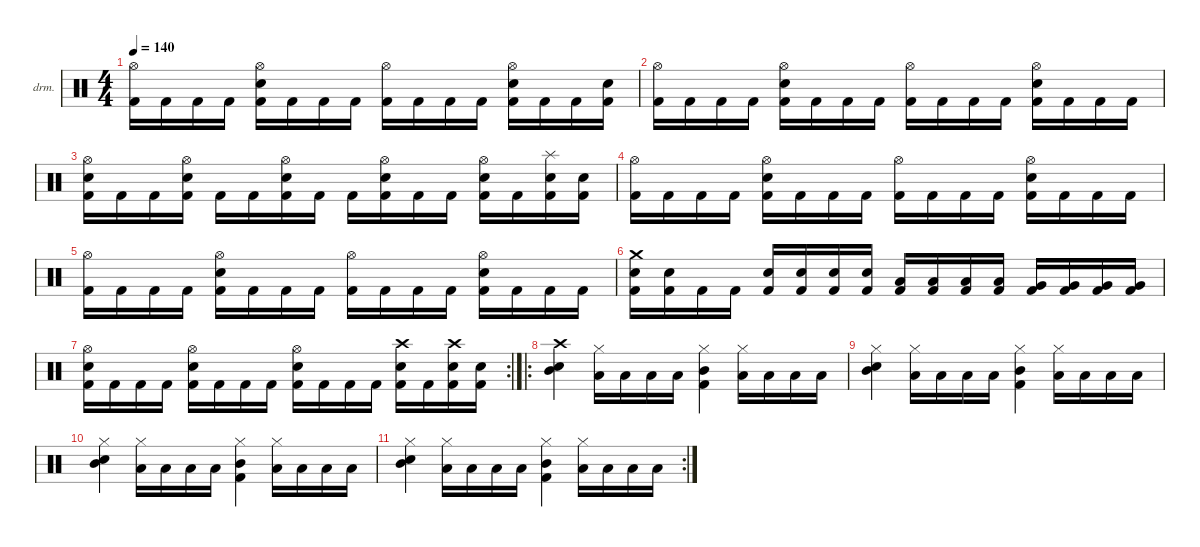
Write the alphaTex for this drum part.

\defaultSystemsLayout 4
\hideDynamics
\bracketExtendMode nobrackets
\firstSystemTrackNameOrientation horizontal
\otherSystemsTrackNameOrientation horizontal
\track ("Drumkit" "drm.") {instrument percussion}
\staff {score}
\articulation defaults
\ts (4 4)
\tempo 140
\clef neutral
\ks c
("Hi-Hat (open)" "Kick (hit) 2").16{dy ff} "Kick (hit) 2".16 "Kick (hit) 2".16 "Kick (hit) 2".16 ("Hi-Hat (open)" "Snare (hit) 2" "Kick (hit) 2").16 "Kick (hit) 2".16 "Kick (hit) 2".16 "Kick (hit) 2".16 ("Hi-Hat (open)" "Kick (hit) 2").16 "Kick (hit) 2".16 "Kick (hit) 2".16 "Kick (hit) 2".16 ("Hi-Hat (open)" "Snare (hit) 2" "Kick (hit) 2").16 "Kick (hit) 2".16 "Kick (hit) 2".16 ("Snare (hit) 2" "Kick (hit) 2").16 |
("Hi-Hat (open)" "Kick (hit) 2").16 "Kick (hit) 2".16 "Kick (hit) 2".16 "Kick (hit) 2".16 ("Hi-Hat (open)" "Snare (hit) 2" "Kick (hit) 2").16 "Kick (hit) 2".16 "Kick (hit) 2".16 "Kick (hit) 2".16 ("Hi-Hat (open)" "Kick (hit) 2").16 "Kick (hit) 2".16 "Kick (hit) 2".16 "Kick (hit) 2".16 ("Hi-Hat (open)" "Snare (hit) 2" "Kick (hit) 2").16 "Kick (hit) 2".16 "Kick (hit) 2".16 "Kick (hit) 2".16 |
("Hi-Hat (open)" "Snare (hit) 2" "Kick (hit) 2").16 "Kick (hit) 2".16 "Kick (hit) 2".16 ("Hi-Hat (open)" "Snare (hit) 2" "Kick (hit) 2").16 "Kick (hit) 2".16 "Kick (hit) 2".16 ("Hi-Hat (open)" "Snare (hit) 2" "Kick (hit) 2").16 "Kick (hit) 2".16 "Kick (hit) 2".16 ("Hi-Hat (open)" "Snare (hit) 2" "Kick (hit) 2").16 "Kick (hit) 2".16 "Kick (hit) 2".16 ("Hi-Hat (open)" "Snare (hit) 2" "Kick (hit) 2").16 "Kick (hit) 2".16 ("Splash (hit)" "Snare (hit) 2" "Kick (hit) 2").16 ("Snare (hit) 2" "Kick (hit) 2").16 |
("Hi-Hat (open)" "Kick (hit) 2").16 "Kick (hit) 2".16 "Kick (hit) 2".16 "Kick (hit) 2".16 ("Hi-Hat (open)" "Snare (hit) 2" "Kick (hit) 2").16 "Kick (hit) 2".16 "Kick (hit) 2".16 "Kick (hit) 2".16 ("Hi-Hat (open)" "Kick (hit) 2").16 "Kick (hit) 2".16 "Kick (hit) 2".16 "Kick (hit) 2".16 ("Hi-Hat (open)" "Snare (hit) 2" "Kick (hit) 2").16 "Kick (hit) 2".16 "Kick (hit) 2".16 "Kick (hit) 2".16 |
("Hi-Hat (open)" "Kick (hit) 2").16 "Kick (hit) 2".16 "Kick (hit) 2".16 "Kick (hit) 2".16 ("Hi-Hat (open)" "Snare (hit) 2" "Kick (hit) 2").16 "Kick (hit) 2".16 "Kick (hit) 2".16 "Kick (hit) 2".16 ("Hi-Hat (open)" "Kick (hit) 2").16 "Kick (hit) 2".16 "Kick (hit) 2".16 "Kick (hit) 2".16 ("Hi-Hat (open)" "Snare (hit) 2" "Kick (hit) 2").16 "Kick (hit) 2".16 "Kick (hit) 2".16 "Kick (hit) 2".16 |
("Crash medium (hit)" "Snare (hit) 2" "Kick (hit) 2").16{dy mf} ("Snare (hit) 2" "Kick (hit) 2").16 "Kick (hit) 2".16 "Kick (hit) 2".16 ("Snare (hit) 2" "Kick (hit) 2").16 ("Snare (hit) 2" "Kick (hit) 2").16 ("Snare (hit) 2" "Kick (hit) 2").16 ("Snare (hit) 2" "Kick (hit) 2").16 ("Low Tom (hit)" "Kick (hit) 2").16 ("Low Tom (hit)" "Kick (hit) 2").16 ("Low Tom (hit)" "Kick (hit) 2").16 ("Low Tom (hit)" "Kick (hit) 2").16 ("Very Low Tom (hit)" "Kick (hit) 2").16 ("Very Low Tom (hit)" "Kick (hit) 2").16 ("Very Low Tom (hit)" "Kick (hit) 2").16 ("Very Low Tom (hit)" "Kick (hit) 2").16 |
\rc 2
("Hi-Hat (open)" "Snare (hit) 2" "Kick (hit) 2").16 "Kick (hit) 2".16 "Kick (hit) 2".16 "Kick (hit) 2".16 ("Hi-Hat (open)" "Snare (hit) 2" "Kick (hit) 2").16 "Kick (hit) 2".16 "Kick (hit) 2".16 "Kick (hit) 2".16 ("Hi-Hat (open)" "Snare (hit) 2" "Kick (hit) 2").16 "Kick (hit) 2".16 "Kick (hit) 2".16 "Kick (hit) 2".16 ("Crash high (hit)" "Snare (hit) 2" "Kick (hit) 2").16 "Kick (hit) 2".16 ("Crash high (hit)" "Snare (hit) 2" "Kick (hit) 2").16 ("Snare (hit) 2" "Kick (hit) 2").16 |
\ro
("Snare (hit) 2" "Mid Tom (hit)" "Crash high (hit)").4{dy fff} ("Low Tom (hit)" "Hi-Hat (closed)").16 "Low Tom (hit)".16 "Low Tom (hit)".16 "Low Tom (hit)".16 ("Mid Tom (hit)" "Kick (hit) 2" "Hi-Hat (closed)").4 ("Low Tom (hit)" "Hi-Hat (closed)").16 "Low Tom (hit)".16 "Low Tom (hit)".16 "Low Tom (hit)".16 |
("Snare (hit) 2" "Mid Tom (hit)" "Hi-Hat (closed)").4 ("Low Tom (hit)" "Hi-Hat (closed)").16 "Low Tom (hit)".16 "Low Tom (hit)".16 "Low Tom (hit)".16 ("Mid Tom (hit)" "Kick (hit) 2" "Hi-Hat (closed)").4 ("Low Tom (hit)" "Hi-Hat (closed)").16 "Low Tom (hit)".16 "Low Tom (hit)".16 "Low Tom (hit)".16 |
("Snare (hit) 2" "Mid Tom (hit)" "Hi-Hat (closed)").4 ("Low Tom (hit)" "Hi-Hat (closed)").16 "Low Tom (hit)".16 "Low Tom (hit)".16 "Low Tom (hit)".16 ("Mid Tom (hit)" "Kick (hit) 2" "Hi-Hat (closed)").4 ("Low Tom (hit)" "Hi-Hat (closed)").16 "Low Tom (hit)".16 "Low Tom (hit)".16 "Low Tom (hit)".16 |
\rc 2
("Snare (hit) 2" "Mid Tom (hit)" "Hi-Hat (closed)").4 ("Low Tom (hit)" "Hi-Hat (closed)").16 "Low Tom (hit)".16 "Low Tom (hit)".16 "Low Tom (hit)".16 ("Mid Tom (hit)" "Kick (hit) 2" "Hi-Hat (closed)").4 ("Low Tom (hit)" "Hi-Hat (closed)").16 "Low Tom (hit)".16 "Low Tom (hit)".16 "Low Tom (hit)".16
